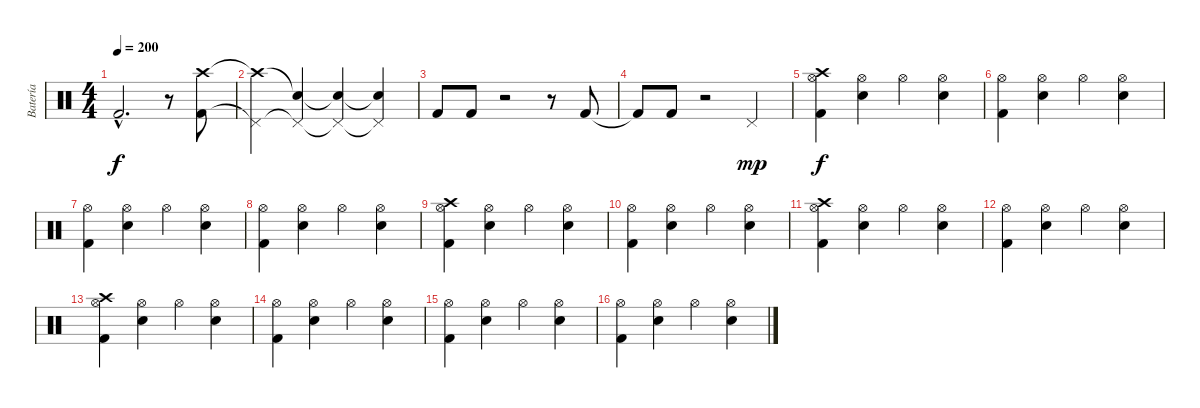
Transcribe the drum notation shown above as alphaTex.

\track ("Batería" "Batería") {instrument percussion}
\staff {score}
\articulation defaults
\ts (4 4)
\tempo 200
\clef neutral
\ks c "Kick (hit) 2"{hac}.2{d dy f}
r.8 ("Kick (hit) 2" "Crash high (hit)").8 |
("Pedal Hi-Hat (hit)"{t} "Crash high (hit)"{t}).4 ("Pedal Hi-Hat (hit)"{t} "Snare (hit)"{t}).4 ("Pedal Hi-Hat (hit)"{t} "Snare (hit)"{t}).4 ("Pedal Hi-Hat (hit)"{t} "Snare (hit)"{t}).4 |
"Kick (hit) 2".8 "Kick (hit) 2".8 r.2 r.8 "Kick (hit) 2".8 |
"Kick (hit) 2"{t}.8 "Kick (hit) 2".8 r.2 "Pedal Hi-Hat (hit)".4{dy mp} |
("Hi-Hat (open)" "Kick (hit) 2" "Crash high (hit)").4{dy f} ("Hi-Hat (open)" "Electric Snare (hit)").4 "Hi-Hat (open)".4 ("Hi-Hat (open)" "Electric Snare (hit)").4 |
("Hi-Hat (open)" "Kick (hit) 2").4 ("Hi-Hat (open)" "Electric Snare (hit)").4 "Hi-Hat (open)".4 ("Hi-Hat (open)" "Electric Snare (hit)").4 |
("Hi-Hat (open)" "Kick (hit) 2").4 ("Hi-Hat (open)" "Electric Snare (hit)").4 "Hi-Hat (open)".4 ("Hi-Hat (open)" "Electric Snare (hit)").4 |
("Hi-Hat (open)" "Kick (hit) 2").4 ("Hi-Hat (open)" "Electric Snare (hit)").4 "Hi-Hat (open)".4 ("Hi-Hat (open)" "Electric Snare (hit)").4 |
("Hi-Hat (open)" "Kick (hit) 2" "Crash high (hit)").4 ("Hi-Hat (open)" "Electric Snare (hit)").4 "Hi-Hat (open)".4 ("Hi-Hat (open)" "Electric Snare (hit)").4 |
("Hi-Hat (open)" "Kick (hit) 2").4 ("Hi-Hat (open)" "Electric Snare (hit)").4 "Hi-Hat (open)".4 ("Hi-Hat (open)" "Electric Snare (hit)").4 |
("Hi-Hat (open)" "Kick (hit) 2" "Crash high (hit)").4 ("Hi-Hat (open)" "Electric Snare (hit)").4 "Hi-Hat (open)".4 ("Hi-Hat (open)" "Electric Snare (hit)").4 |
("Hi-Hat (open)" "Kick (hit) 2").4 ("Hi-Hat (open)" "Electric Snare (hit)").4 "Hi-Hat (open)".4 ("Hi-Hat (open)" "Electric Snare (hit)").4 |
("Hi-Hat (open)" "Kick (hit) 2" "Crash high (hit)").4 ("Hi-Hat (open)" "Electric Snare (hit)").4 "Hi-Hat (open)".4 ("Hi-Hat (open)" "Electric Snare (hit)").4 |
("Hi-Hat (open)" "Kick (hit) 2").4 ("Hi-Hat (open)" "Electric Snare (hit)").4 "Hi-Hat (open)".4 ("Hi-Hat (open)" "Electric Snare (hit)").4 |
("Hi-Hat (open)" "Kick (hit) 2").4 ("Hi-Hat (open)" "Electric Snare (hit)").4 "Hi-Hat (open)".4 ("Hi-Hat (open)" "Electric Snare (hit)").4 |
("Hi-Hat (open)" "Kick (hit) 2").4 ("Hi-Hat (open)" "Electric Snare (hit)").4 "Hi-Hat (open)".4 ("Hi-Hat (open)" "Electric Snare (hit)").4
